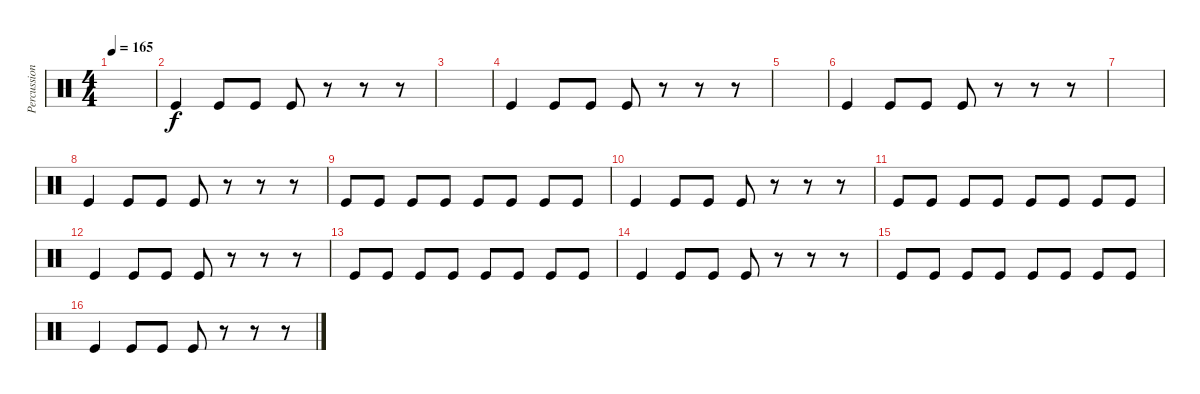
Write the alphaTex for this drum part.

\track ("Percussion" "Percussion") {instrument percussion}
\staff {score}
\articulation defaults
\ts (4 4)
\tempo 165
\clef neutral
\ks c
|
"Kick (hit)".4 "Kick (hit)".8 "Kick (hit)".8 "Kick (hit)".8 r.8 r.8 r.8 |
|
"Kick (hit)".4 "Kick (hit)".8 "Kick (hit)".8 "Kick (hit)".8 r.8 r.8 r.8 |
|
"Kick (hit)".4 "Kick (hit)".8 "Kick (hit)".8 "Kick (hit)".8 r.8 r.8 r.8 |
|
"Kick (hit)".4 "Kick (hit)".8 "Kick (hit)".8 "Kick (hit)".8 r.8 r.8 r.8 |
"Kick (hit)".8 "Kick (hit)".8 "Kick (hit)".8 "Kick (hit)".8 "Kick (hit)".8 "Kick (hit)".8 "Kick (hit)".8 "Kick (hit)".8 |
"Kick (hit)".4 "Kick (hit)".8 "Kick (hit)".8 "Kick (hit)".8 r.8 r.8 r.8 |
"Kick (hit)".8 "Kick (hit)".8 "Kick (hit)".8 "Kick (hit)".8 "Kick (hit)".8 "Kick (hit)".8 "Kick (hit)".8 "Kick (hit)".8 |
"Kick (hit)".4 "Kick (hit)".8 "Kick (hit)".8 "Kick (hit)".8 r.8 r.8 r.8 |
"Kick (hit)".8 "Kick (hit)".8 "Kick (hit)".8 "Kick (hit)".8 "Kick (hit)".8 "Kick (hit)".8 "Kick (hit)".8 "Kick (hit)".8 |
"Kick (hit)".4 "Kick (hit)".8 "Kick (hit)".8 "Kick (hit)".8 r.8 r.8 r.8 |
"Kick (hit)".8 "Kick (hit)".8 "Kick (hit)".8 "Kick (hit)".8 "Kick (hit)".8 "Kick (hit)".8 "Kick (hit)".8 "Kick (hit)".8 |
"Kick (hit)".4 "Kick (hit)".8 "Kick (hit)".8 "Kick (hit)".8 r.8 r.8 r.8
